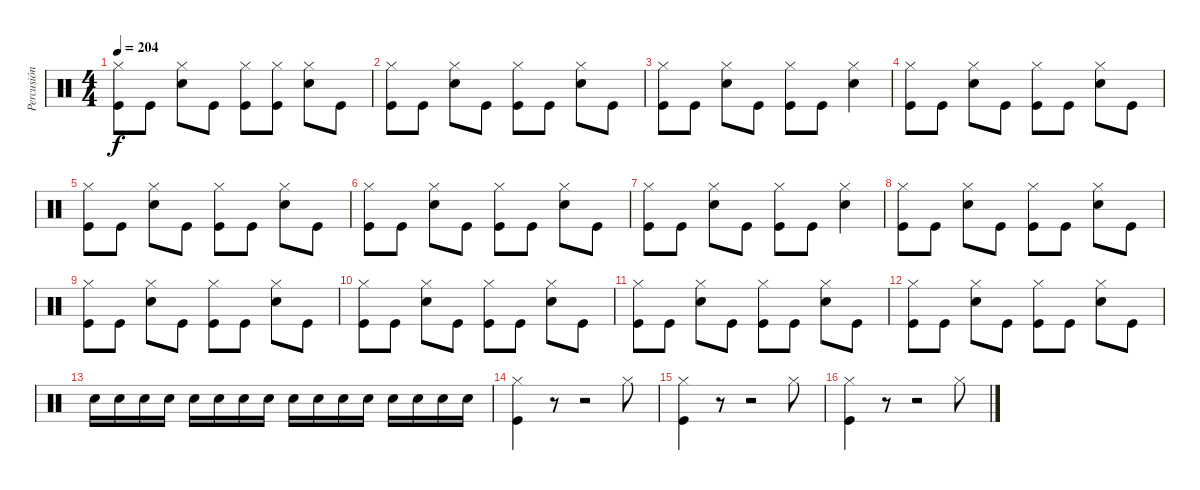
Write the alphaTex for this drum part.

\track ("Percusión" "Percusión") {instrument percussion}
\staff {score}
\articulation defaults
\ts (4 4)
\tempo 204
\clef neutral
\ks c
("Hi-Hat (closed)" "Kick (hit)").8{dy f} "Kick (hit)".8 ("Hi-Hat (closed)" "Snare (hit) 2").8 "Kick (hit)".8 ("Hi-Hat (closed)" "Kick (hit)").8 ("Hi-Hat (closed)" "Kick (hit)").8 ("Hi-Hat (closed)" "Snare (hit) 2").8 "Kick (hit)".8 |
("Hi-Hat (closed)" "Kick (hit)").8 "Kick (hit)".8 ("Hi-Hat (closed)" "Snare (hit) 2").8 "Kick (hit)".8 ("Hi-Hat (closed)" "Kick (hit)").8 "Kick (hit)".8 ("Hi-Hat (closed)" "Snare (hit) 2").8 "Kick (hit)".8 |
("Hi-Hat (closed)" "Kick (hit)").8 "Kick (hit)".8 ("Hi-Hat (closed)" "Snare (hit) 2").8 "Kick (hit)".8 ("Hi-Hat (closed)" "Kick (hit)").8 "Kick (hit)".8 ("Hi-Hat (closed)" "Snare (hit) 2").4 |
("Hi-Hat (closed)" "Kick (hit)").8 "Kick (hit)".8 ("Hi-Hat (closed)" "Snare (hit) 2").8 "Kick (hit)".8 ("Hi-Hat (closed)" "Kick (hit)").8 "Kick (hit)".8 ("Hi-Hat (closed)" "Snare (hit) 2").8 "Kick (hit)".8 |
("Hi-Hat (closed)" "Kick (hit)").8 "Kick (hit)".8 ("Hi-Hat (closed)" "Snare (hit) 2").8 "Kick (hit)".8 ("Hi-Hat (closed)" "Kick (hit)").8 "Kick (hit)".8 ("Hi-Hat (closed)" "Snare (hit) 2").8 "Kick (hit)".8 |
("Hi-Hat (closed)" "Kick (hit)").8 "Kick (hit)".8 ("Hi-Hat (closed)" "Snare (hit) 2").8 "Kick (hit)".8 ("Hi-Hat (closed)" "Kick (hit)").8 "Kick (hit)".8 ("Hi-Hat (closed)" "Snare (hit) 2").8 "Kick (hit)".8 |
("Hi-Hat (closed)" "Kick (hit)").8 "Kick (hit)".8 ("Hi-Hat (closed)" "Snare (hit) 2").8 "Kick (hit)".8 ("Hi-Hat (closed)" "Kick (hit)").8 "Kick (hit)".8 ("Hi-Hat (closed)" "Snare (hit) 2").4 |
("Hi-Hat (closed)" "Kick (hit)").8 "Kick (hit)".8 ("Hi-Hat (closed)" "Snare (hit) 2").8 "Kick (hit)".8 ("Hi-Hat (closed)" "Kick (hit)").8 "Kick (hit)".8 ("Hi-Hat (closed)" "Snare (hit) 2").8 "Kick (hit)".8 |
("Hi-Hat (closed)" "Kick (hit)").8 "Kick (hit)".8 ("Hi-Hat (closed)" "Snare (hit) 2").8 "Kick (hit)".8 ("Hi-Hat (closed)" "Kick (hit)").8 "Kick (hit)".8 ("Hi-Hat (closed)" "Snare (hit) 2").8 "Kick (hit)".8 |
("Hi-Hat (closed)" "Kick (hit)").8 "Kick (hit)".8 ("Hi-Hat (closed)" "Snare (hit) 2").8 "Kick (hit)".8 ("Hi-Hat (closed)" "Kick (hit)").8 "Kick (hit)".8 ("Hi-Hat (closed)" "Snare (hit) 2").8 "Kick (hit)".8 |
("Hi-Hat (closed)" "Kick (hit)").8 "Kick (hit)".8 ("Hi-Hat (closed)" "Snare (hit) 2").8 "Kick (hit)".8 ("Hi-Hat (closed)" "Kick (hit)").8 "Kick (hit)".8 ("Hi-Hat (closed)" "Snare (hit) 2").8 "Kick (hit)".8 |
("Hi-Hat (closed)" "Kick (hit)").8 "Kick (hit)".8 ("Hi-Hat (closed)" "Snare (hit) 2").8 "Kick (hit)".8 ("Hi-Hat (closed)" "Kick (hit)").8 "Kick (hit)".8 ("Hi-Hat (closed)" "Snare (hit) 2").8 "Kick (hit)".8 |
"Snare (hit) 2".16 "Snare (hit) 2".16 "Snare (hit) 2".16 "Snare (hit) 2".16 "Snare (hit) 2".16 "Snare (hit) 2".16 "Snare (hit) 2".16 "Snare (hit) 2".16 "Snare (hit) 2".16 "Snare (hit) 2".16 "Snare (hit) 2".16 "Snare (hit) 2".16 "Snare (hit) 2".16 "Snare (hit) 2".16 "Snare (hit) 2".16 "Snare (hit) 2".16 |
("Hi-Hat (closed)" "Kick (hit)").4 r.8 r.2 "Hi-Hat (closed)".8 |
("Hi-Hat (closed)" "Kick (hit)").4 r.8 r.2 "Hi-Hat (closed)".8 |
("Hi-Hat (closed)" "Kick (hit)").4 r.8 r.2 "Hi-Hat (closed)".8
